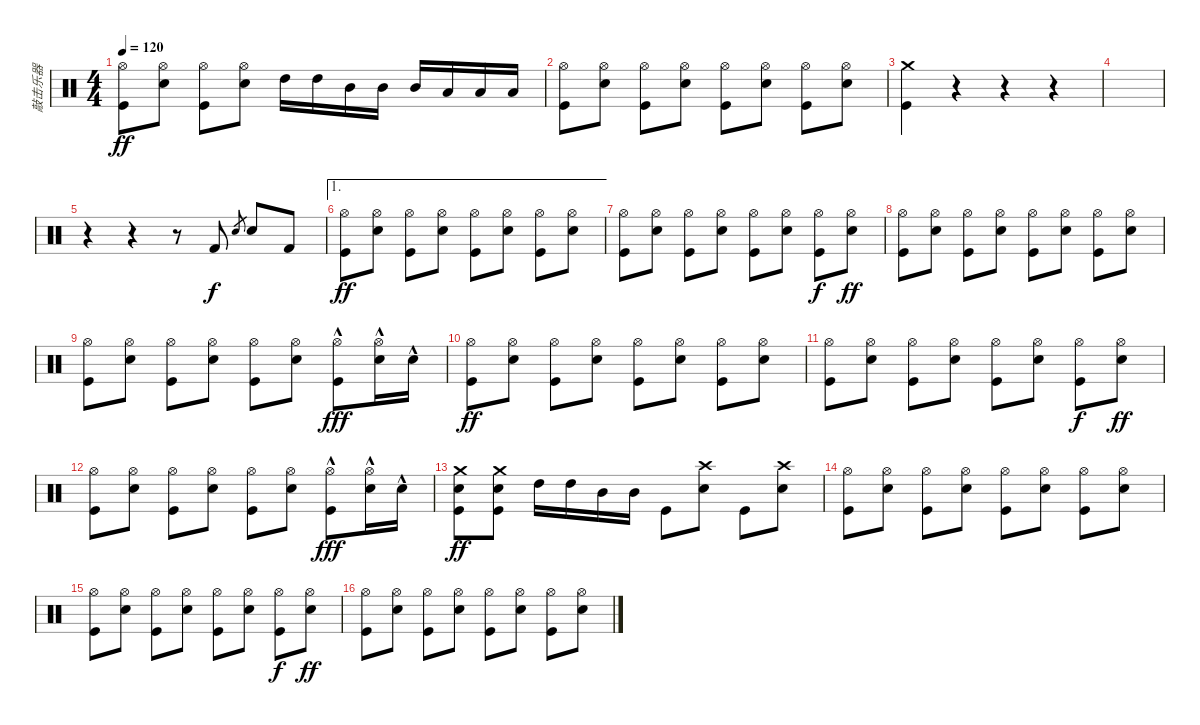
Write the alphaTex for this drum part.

\track ("敲击乐器" "敲击乐器") {instrument percussion}
\staff {score}
\articulation defaults
\ts (4 4)
\tempo 120
\clef neutral
\ks c
("Hi-Hat (open)" "Kick (hit)").8{dy ff} ("Hi-Hat (open)" "Electric Snare (hit)").8 ("Hi-Hat (open)" "Kick (hit)").8 ("Hi-Hat (open)" "Electric Snare (hit)").8 "High Tom (hit)".16 "High Tom (hit)".16 "Mid Tom (hit)".16 "Mid Tom (hit)".16 "Mid Tom (hit)".16 "Low Tom (hit)".16 "Low Tom (hit)".16 "Low Floor Tom (hit)".16 |
("Hi-Hat (open)" "Kick (hit)").8 ("Hi-Hat (open)" "Electric Snare (hit)").8 ("Hi-Hat (open)" "Kick (hit)").8 ("Hi-Hat (open)" "Electric Snare (hit)").8 ("Hi-Hat (open)" "Kick (hit)").8 ("Hi-Hat (open)" "Electric Snare (hit)").8 ("Hi-Hat (open)" "Kick (hit)").8 ("Hi-Hat (open)" "Electric Snare (hit)").8 |
("Crash medium (hit)" "Kick (hit)").4 r.4 r.4 r.4 |
|
r.4 r.4 r.8 "Kick (hit) 2".8{dy f} "Electric Snare (hit)".8{gr} "Electric Snare (hit)".8 "Kick (hit) 2".8 |
\ae 1
("Hi-Hat (open)" "Kick (hit)").8{dy ff} ("Hi-Hat (open)" "Electric Snare (hit)").8 ("Hi-Hat (open)" "Kick (hit)").8 ("Hi-Hat (open)" "Electric Snare (hit)").8 ("Hi-Hat (open)" "Kick (hit)").8 ("Hi-Hat (open)" "Electric Snare (hit)").8 ("Hi-Hat (open)" "Kick (hit)").8 ("Hi-Hat (open)" "Electric Snare (hit)").8 |
("Hi-Hat (open)" "Kick (hit)").8 ("Hi-Hat (open)" "Electric Snare (hit)").8 ("Hi-Hat (open)" "Kick (hit)").8 ("Hi-Hat (open)" "Electric Snare (hit)").8 ("Hi-Hat (open)" "Kick (hit)").8 ("Hi-Hat (open)" "Electric Snare (hit)").8 ("Hi-Hat (open)" "Kick (hit)").8{dy f} ("Hi-Hat (open)" "Electric Snare (hit)").8{dy ff} |
("Hi-Hat (open)" "Kick (hit)").8 ("Hi-Hat (open)" "Electric Snare (hit)").8 ("Hi-Hat (open)" "Kick (hit)").8 ("Hi-Hat (open)" "Electric Snare (hit)").8 ("Hi-Hat (open)" "Kick (hit)").8 ("Hi-Hat (open)" "Electric Snare (hit)").8 ("Hi-Hat (open)" "Kick (hit)").8 ("Hi-Hat (open)" "Electric Snare (hit)").8 |
("Hi-Hat (open)" "Kick (hit)").8 ("Hi-Hat (open)" "Electric Snare (hit)").8 ("Hi-Hat (open)" "Kick (hit)").8 ("Hi-Hat (open)" "Electric Snare (hit)").8 ("Hi-Hat (open)" "Kick (hit)").8 ("Hi-Hat (open)" "Electric Snare (hit)").8 ("Hi-Hat (open)" "Kick (hit)"{hac}).8{dy fff} ("Hi-Hat (open)" "Electric Snare (hit)"{hac}).16 "Electric Snare (hit)"{hac}.16 |
("Hi-Hat (open)" "Kick (hit)").8{dy ff} ("Hi-Hat (open)" "Electric Snare (hit)").8 ("Hi-Hat (open)" "Kick (hit)").8 ("Hi-Hat (open)" "Electric Snare (hit)").8 ("Hi-Hat (open)" "Kick (hit)").8 ("Hi-Hat (open)" "Electric Snare (hit)").8 ("Hi-Hat (open)" "Kick (hit)").8 ("Hi-Hat (open)" "Electric Snare (hit)").8 |
("Hi-Hat (open)" "Kick (hit)").8 ("Hi-Hat (open)" "Electric Snare (hit)").8 ("Hi-Hat (open)" "Kick (hit)").8 ("Hi-Hat (open)" "Electric Snare (hit)").8 ("Hi-Hat (open)" "Kick (hit)").8 ("Hi-Hat (open)" "Electric Snare (hit)").8 ("Hi-Hat (open)" "Kick (hit)").8{dy f} ("Hi-Hat (open)" "Electric Snare (hit)").8{dy ff} |
("Hi-Hat (open)" "Kick (hit)").8 ("Hi-Hat (open)" "Electric Snare (hit)").8 ("Hi-Hat (open)" "Kick (hit)").8 ("Hi-Hat (open)" "Electric Snare (hit)").8 ("Hi-Hat (open)" "Kick (hit)").8 ("Hi-Hat (open)" "Electric Snare (hit)").8 ("Hi-Hat (open)" "Kick (hit)"{hac}).8{dy fff} ("Hi-Hat (open)" "Electric Snare (hit)"{hac}).16 "Electric Snare (hit)"{hac}.16 |
("Crash medium (hit)" "Electric Snare (hit)" "Kick (hit)").8{dy ff} ("Crash medium (hit)" "Electric Snare (hit)" "Kick (hit)").8 "High Tom (hit)".16 "High Tom (hit)".16 "Mid Tom (hit)".16 "Mid Tom (hit)".16 "Kick (hit)".8 ("Crash high (hit)" "Electric Snare (hit)").8 "Kick (hit)".8 ("Crash high (hit)" "Electric Snare (hit)").8 |
("Hi-Hat (open)" "Kick (hit)").8 ("Hi-Hat (open)" "Electric Snare (hit)").8 ("Hi-Hat (open)" "Kick (hit)").8 ("Hi-Hat (open)" "Electric Snare (hit)").8 ("Hi-Hat (open)" "Kick (hit)").8 ("Hi-Hat (open)" "Electric Snare (hit)").8 ("Hi-Hat (open)" "Kick (hit)").8 ("Hi-Hat (open)" "Electric Snare (hit)").8 |
("Hi-Hat (open)" "Kick (hit)").8 ("Hi-Hat (open)" "Electric Snare (hit)").8 ("Hi-Hat (open)" "Kick (hit)").8 ("Hi-Hat (open)" "Electric Snare (hit)").8 ("Hi-Hat (open)" "Kick (hit)").8 ("Hi-Hat (open)" "Electric Snare (hit)").8 ("Hi-Hat (open)" "Kick (hit)").8{dy f} ("Hi-Hat (open)" "Electric Snare (hit)").8{dy ff} |
("Hi-Hat (open)" "Kick (hit)").8 ("Hi-Hat (open)" "Electric Snare (hit)").8 ("Hi-Hat (open)" "Kick (hit)").8 ("Hi-Hat (open)" "Electric Snare (hit)").8 ("Hi-Hat (open)" "Kick (hit)").8 ("Hi-Hat (open)" "Electric Snare (hit)").8 ("Hi-Hat (open)" "Kick (hit)").8 ("Hi-Hat (open)" "Electric Snare (hit)").8
